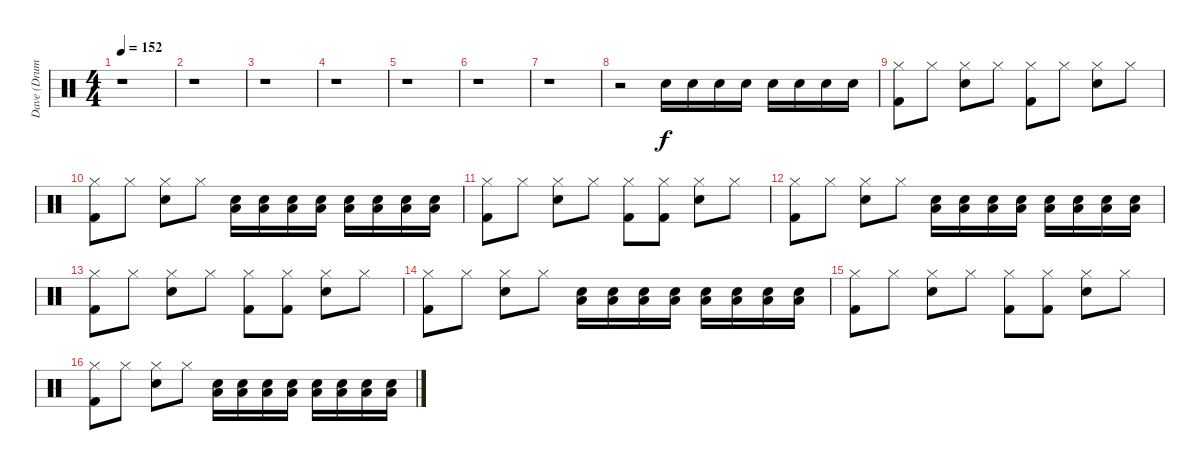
\track ("Dave (Drums)" "Dave (Drum") {instrument percussion}
\staff {score}
\articulation defaults
\ts (4 4)
\tempo 152
\clef neutral
\ks c
r.1{dy f} |
r.1 |
r.1 |
r.1 |
r.1 |
r.1 |
r.1 |
r.2 "Snare (hit) 2".16 "Snare (hit) 2".16 "Snare (hit) 2".16 "Snare (hit) 2".16 "Snare (hit) 2".16 "Snare (hit) 2".16 "Snare (hit) 2".16 "Snare (hit) 2".16 |
("Hi-Hat (closed)" "Kick (hit) 2").8 "Hi-Hat (closed)".8 ("Hi-Hat (closed)" "Snare (hit) 2").8 "Hi-Hat (closed)".8 ("Hi-Hat (closed)" "Kick (hit) 2").8 "Hi-Hat (closed)".8 ("Hi-Hat (closed)" "Snare (hit) 2").8 "Hi-Hat (closed)".8 |
("Hi-Hat (closed)" "Kick (hit) 2").8 "Hi-Hat (closed)".8 ("Hi-Hat (closed)" "Snare (hit) 2").8 "Hi-Hat (closed)".8 ("Low Tom (hit)" "Snare (hit) 2").16 ("Low Tom (hit)" "Snare (hit) 2").16 ("Low Tom (hit)" "Snare (hit) 2").16 ("Low Tom (hit)" "Snare (hit) 2").16 ("Low Tom (hit)" "Snare (hit) 2").16 ("Low Tom (hit)" "Snare (hit) 2").16 ("Low Tom (hit)" "Snare (hit) 2").16 ("Low Tom (hit)" "Snare (hit) 2").16 |
("Hi-Hat (closed)" "Kick (hit) 2").8 "Hi-Hat (closed)".8 ("Hi-Hat (closed)" "Snare (hit) 2").8 "Hi-Hat (closed)".8 ("Hi-Hat (closed)" "Kick (hit) 2").8 ("Hi-Hat (closed)" "Kick (hit) 2").8 ("Hi-Hat (closed)" "Snare (hit) 2").8 "Hi-Hat (closed)".8 |
("Hi-Hat (closed)" "Kick (hit) 2").8 "Hi-Hat (closed)".8 ("Hi-Hat (closed)" "Snare (hit) 2").8 "Hi-Hat (closed)".8 ("Low Tom (hit)" "Snare (hit) 2").16 ("Low Tom (hit)" "Snare (hit) 2").16 ("Low Tom (hit)" "Snare (hit) 2").16 ("Low Tom (hit)" "Snare (hit) 2").16 ("Low Tom (hit)" "Snare (hit) 2").16 ("Low Tom (hit)" "Snare (hit) 2").16 ("Low Tom (hit)" "Snare (hit) 2").16 ("Low Tom (hit)" "Snare (hit) 2").16 |
("Hi-Hat (closed)" "Kick (hit) 2").8 "Hi-Hat (closed)".8 ("Hi-Hat (closed)" "Snare (hit) 2").8 "Hi-Hat (closed)".8 ("Hi-Hat (closed)" "Kick (hit) 2").8 ("Hi-Hat (closed)" "Kick (hit) 2").8 ("Hi-Hat (closed)" "Snare (hit) 2").8 "Hi-Hat (closed)".8 |
("Hi-Hat (closed)" "Kick (hit) 2").8 "Hi-Hat (closed)".8 ("Hi-Hat (closed)" "Snare (hit) 2").8 "Hi-Hat (closed)".8 ("Low Tom (hit)" "Snare (hit) 2").16 ("Low Tom (hit)" "Snare (hit) 2").16 ("Low Tom (hit)" "Snare (hit) 2").16 ("Low Tom (hit)" "Snare (hit) 2").16 ("Low Tom (hit)" "Snare (hit) 2").16 ("Low Tom (hit)" "Snare (hit) 2").16 ("Low Tom (hit)" "Snare (hit) 2").16 ("Low Tom (hit)" "Snare (hit) 2").16 |
("Hi-Hat (closed)" "Kick (hit) 2").8 "Hi-Hat (closed)".8 ("Hi-Hat (closed)" "Snare (hit) 2").8 "Hi-Hat (closed)".8 ("Hi-Hat (closed)" "Kick (hit) 2").8 ("Hi-Hat (closed)" "Kick (hit) 2").8 ("Hi-Hat (closed)" "Snare (hit) 2").8 "Hi-Hat (closed)".8 |
("Hi-Hat (closed)" "Kick (hit) 2").8 "Hi-Hat (closed)".8 ("Hi-Hat (closed)" "Snare (hit) 2").8 "Hi-Hat (closed)".8 ("Low Tom (hit)" "Snare (hit) 2").16 ("Low Tom (hit)" "Snare (hit) 2").16 ("Low Tom (hit)" "Snare (hit) 2").16 ("Low Tom (hit)" "Snare (hit) 2").16 ("Low Tom (hit)" "Snare (hit) 2").16 ("Low Tom (hit)" "Snare (hit) 2").16 ("Low Tom (hit)" "Snare (hit) 2").16 ("Low Tom (hit)" "Snare (hit) 2").16
